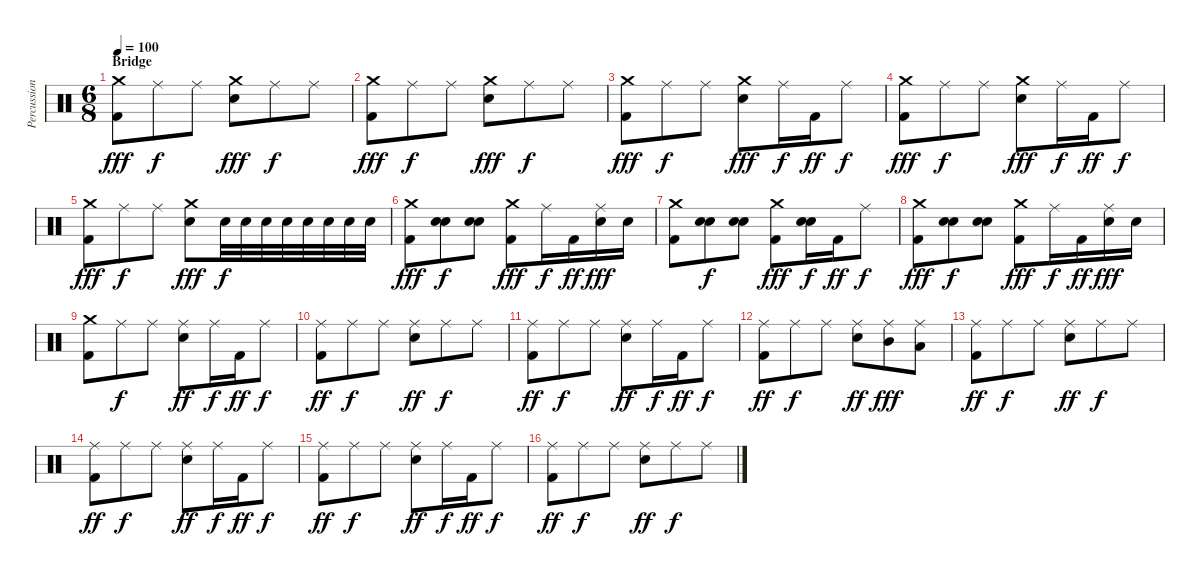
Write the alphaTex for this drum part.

\track ("Percussion" "Percussion") {instrument percussion}
\staff {score}
\articulation defaults
\ts (6 8)
\section ("" "Bridge")
\tempo 100
\clef neutral
\ks c
("Kick (hit) 2" "Crash medium (hit)").8{dy fff} "Ride (middle)".8{dy f} "Ride (middle)".8 ("Electric Snare (hit)" "Crash medium (hit)").8{dy fff} "Ride (middle)".8{dy f} "Ride (middle)".8 |
("Kick (hit) 2" "Crash medium (hit)").8{dy fff} "Ride (middle)".8{dy f} "Ride (middle)".8 ("Electric Snare (hit)" "Crash medium (hit)").8{dy fff} "Ride (middle)".8{dy f} "Ride (middle)".8 |
("Kick (hit) 2" "Crash medium (hit)").8{dy fff} "Ride (middle)".8{dy f} "Ride (middle)".8 ("Electric Snare (hit)" "Crash medium (hit)").8{dy fff} "Ride (middle)".16{dy f} "Kick (hit) 2".16{dy ff} "Ride (middle)".8{dy f} |
("Kick (hit) 2" "Crash medium (hit)").8{dy fff} "Ride (middle)".8{dy f} "Ride (middle)".8 ("Electric Snare (hit)" "Crash medium (hit)").8{dy fff} "Ride (middle)".16{dy f} "Kick (hit) 2".16{dy ff} "Ride (middle)".8{dy f} |
("Kick (hit) 2" "Crash medium (hit)").8{dy fff} "Ride (middle)".8{dy f} "Ride (middle)".8 ("Electric Snare (hit)" "Crash medium (hit)").8{dy fff} "Electric Snare (hit)".32{dy f} "Electric Snare (hit)".32 "Electric Snare (hit)".32 "Electric Snare (hit)".32 "Electric Snare (hit)".32 "Electric Snare (hit)".32 "Electric Snare (hit)".32 "Electric Snare (hit)".32 |
("Kick (hit) 2" "Crash medium (hit)").8{dy fff} ("Electric Snare (hit)" "Electric Snare (hit)").8{dy f} ("Electric Snare (hit)" "Electric Snare (hit)").8 ("Kick (hit) 2" "Crash medium (hit)").8{dy fff} "Ride (middle)".16{dy f} "Kick (hit) 2".16{dy ff} ("Ride (middle)" "Electric Snare (hit)").16{dy fff} "Electric Snare (hit)".16 |
("Kick (hit) 2" "Crash medium (hit)").8 ("Electric Snare (hit)" "Electric Snare (hit)").8{dy f} ("Electric Snare (hit)" "Electric Snare (hit)").8 ("Kick (hit) 2" "Crash medium (hit)").8{dy fff} ("Electric Snare (hit)" "Electric Snare (hit)").16{dy f} "Kick (hit) 2".16{dy ff} "Ride (middle)".8{dy f} |
("Kick (hit) 2" "Crash medium (hit)").8{dy fff} ("Electric Snare (hit)" "Electric Snare (hit)").8{dy f} ("Electric Snare (hit)" "Electric Snare (hit)").8 ("Kick (hit) 2" "Crash medium (hit)").8{dy fff} "Ride (middle)".16{dy f} "Kick (hit) 2".16{dy ff} ("Ride (middle)" "Electric Snare (hit)").16{dy fff} "Electric Snare (hit)".16 |
("Kick (hit) 2" "Crash medium (hit)").8 "Ride (middle)".8{dy f} "Ride (middle)".8 ("Electric Snare (hit)" "Ride (middle)").8{dy ff} "Ride (middle)".16{dy f} "Kick (hit) 2".16{dy ff} "Ride (middle)".8{dy f} |
("Kick (hit) 2" "Ride (middle)").8{dy ff} "Ride (middle)".8{dy f} "Ride (middle)".8 ("Electric Snare (hit)" "Ride (middle)").8{dy ff} "Ride (middle)".8{dy f} "Ride (middle)".8 |
("Ride (middle)" "Kick (hit) 2").8{dy ff} "Ride (middle)".8{dy f} "Ride (middle)".8 ("Ride (middle)" "Electric Snare (hit)").8{dy ff} "Ride (middle)".16{dy f} "Kick (hit) 2".16{dy ff} "Ride (middle)".8{dy f} |
("Ride (middle)" "Kick (hit) 2").8{dy ff} "Ride (middle)".8{dy f} "Ride (middle)".8 ("Ride (middle)" "Electric Snare (hit)").8{dy ff} ("Mid Tom (hit)" "Ride (middle)").8{dy fff} ("Low Tom (hit)" "Ride (middle)").8 |
("Ride (middle)" "Kick (hit) 2").8{dy ff} "Ride (middle)".8{dy f} "Ride (middle)".8 ("Ride (middle)" "Electric Snare (hit)").8{dy ff} "Ride (middle)".8{dy f} "Ride (middle)".8 |
("Kick (hit) 2" "Ride (middle)").8{dy ff} "Ride (middle)".8{dy f} "Ride (middle)".8 ("Electric Snare (hit)" "Ride (middle)").8{dy ff} "Ride (middle)".16{dy f} "Kick (hit) 2".16{dy ff} "Ride (middle)".8{dy f} |
("Ride (middle)" "Kick (hit) 2").8{dy ff} "Ride (middle)".8{dy f} "Ride (middle)".8 ("Ride (middle)" "Electric Snare (hit)").8{dy ff} "Ride (middle)".16{dy f} "Kick (hit) 2".16{dy ff} "Ride (middle)".8{dy f} |
("Ride (middle)" "Kick (hit) 2").8{dy ff} "Ride (middle)".8{dy f} "Ride (middle)".8 ("Ride (middle)" "Electric Snare (hit)").8{dy ff} "Ride (middle)".8{dy f} "Ride (middle)".8
